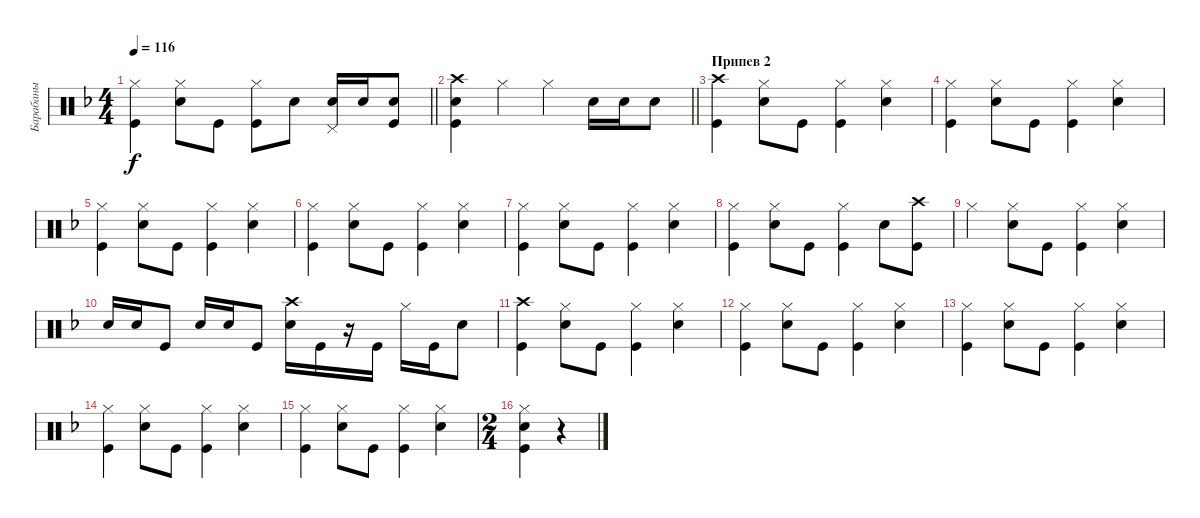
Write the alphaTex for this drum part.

\track ("Барабаны" "Барабаны") {instrument percussion}
\staff {score}
\articulation defaults
\ts (4 4)
\tempo 116
\clef neutral
\barLineRight lightlight
\ks dminor
("Hi-Hat (closed)" "Kick (hit)").4{dy f} ("Hi-Hat (closed)" "Snare (hit) 2").8 "Kick (hit)".8 ("Hi-Hat (closed)" "Kick (hit)").8 "Snare (hit) 2".8 ("Snare (hit) 2" "Pedal Hi-Hat (hit)").16 "Snare (hit) 2".16 ("Snare (hit) 2" "Kick (hit)").8 |
\barLineRight lightlight
("Kick (hit)" "Crash high (hit)" "Snare (hit) 2").4 "Hi-Hat (closed)".4 "Hi-Hat (closed)".4 "Snare (hit) 2".16 "Snare (hit) 2".16 "Snare (hit) 2".8 |
\section ("" "Припев 2")
("Crash high (hit)" "Kick (hit)").4 ("Hi-Hat (closed)" "Snare (hit) 2").8 "Kick (hit)".8 ("Hi-Hat (closed)" "Kick (hit)").4 ("Hi-Hat (closed)" "Snare (hit) 2").4 |
("Hi-Hat (closed)" "Kick (hit)").4 ("Hi-Hat (closed)" "Snare (hit) 2").8 "Kick (hit)".8 ("Hi-Hat (closed)" "Kick (hit)").4 ("Hi-Hat (closed)" "Snare (hit) 2").4 |
("Hi-Hat (closed)" "Kick (hit)").4 ("Hi-Hat (closed)" "Snare (hit) 2").8 "Kick (hit)".8 ("Hi-Hat (closed)" "Kick (hit)").4 ("Hi-Hat (closed)" "Snare (hit) 2").4 |
("Hi-Hat (closed)" "Kick (hit)").4 ("Hi-Hat (closed)" "Snare (hit) 2").8 "Kick (hit)".8 ("Hi-Hat (closed)" "Kick (hit)").4 ("Hi-Hat (closed)" "Snare (hit) 2").4 |
("Hi-Hat (closed)" "Kick (hit)").4 ("Hi-Hat (closed)" "Snare (hit) 2").8 "Kick (hit)".8 ("Hi-Hat (closed)" "Kick (hit)").4 ("Hi-Hat (closed)" "Snare (hit) 2").4 |
("Hi-Hat (closed)" "Kick (hit)").4 ("Hi-Hat (closed)" "Snare (hit) 2").8 "Kick (hit)".8 ("Hi-Hat (closed)" "Kick (hit)").4 "Snare (hit) 2".8 ("Kick (hit)" "Crash high (hit)").8 |
"Hi-Hat (closed)".4 ("Hi-Hat (closed)" "Snare (hit) 2").8 "Kick (hit)".8 ("Hi-Hat (closed)" "Kick (hit)").4 ("Hi-Hat (closed)" "Snare (hit) 2").4 |
"Snare (hit) 2".16 "Snare (hit) 2".16 "Kick (hit)".8 "Snare (hit) 2".16 "Snare (hit) 2".16 "Kick (hit)".8 ("Snare (hit) 2" "Crash high (hit)").16 "Kick (hit)".16 r.16 "Kick (hit)".16 "Hi-Hat (closed)".16 "Kick (hit)".16 "Snare (hit) 2".8 |
("Crash high (hit)" "Kick (hit)").4 ("Hi-Hat (closed)" "Snare (hit) 2").8 "Kick (hit)".8 ("Hi-Hat (closed)" "Kick (hit)").4 ("Hi-Hat (closed)" "Snare (hit) 2").4 |
("Hi-Hat (closed)" "Kick (hit)").4 ("Hi-Hat (closed)" "Snare (hit) 2").8 "Kick (hit)".8 ("Hi-Hat (closed)" "Kick (hit)").4 ("Hi-Hat (closed)" "Snare (hit) 2").4 |
("Hi-Hat (closed)" "Kick (hit)").4 ("Hi-Hat (closed)" "Snare (hit) 2").8 "Kick (hit)".8 ("Hi-Hat (closed)" "Kick (hit)").4 ("Hi-Hat (closed)" "Snare (hit) 2").4 |
("Hi-Hat (closed)" "Kick (hit)").4 ("Hi-Hat (closed)" "Snare (hit) 2").8 "Kick (hit)".8 ("Hi-Hat (closed)" "Kick (hit)").4 ("Hi-Hat (closed)" "Snare (hit) 2").4 |
("Hi-Hat (closed)" "Kick (hit)").4 ("Hi-Hat (closed)" "Snare (hit) 2").8 "Kick (hit)".8 ("Hi-Hat (closed)" "Kick (hit)").4 ("Hi-Hat (closed)" "Snare (hit) 2").4 |
\ts (2 4)
("Snare (hit) 2" "Kick (hit)" "Hi-Hat (closed)").4 r.4
